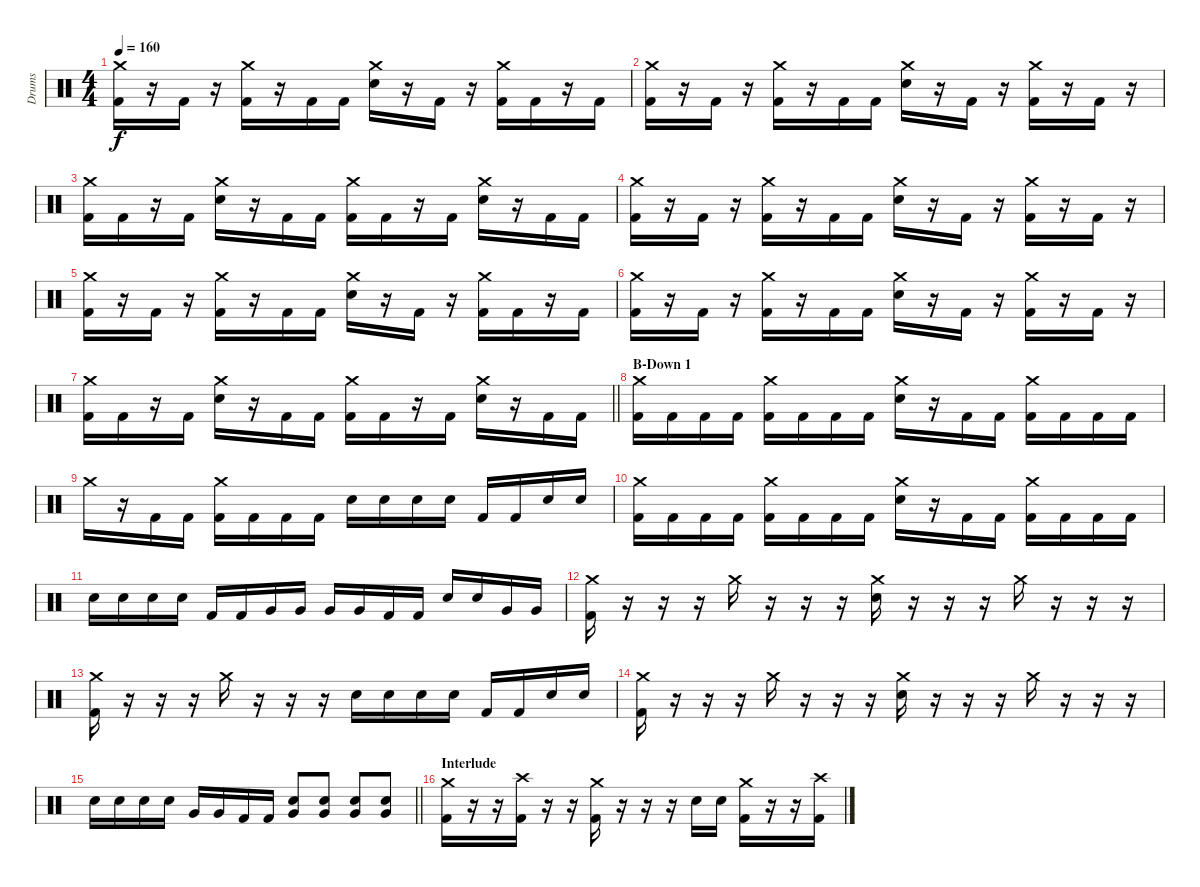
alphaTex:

\track ("Drums" "Drums") {instrument percussion}
\staff {score}
\articulation defaults
\ts (4 4)
\tempo 160
\clef neutral
\ks c
("Crash medium (hit)" "Kick (hit) 2").16{dy f} r.16 "Kick (hit) 2".16 r.16 ("Crash medium (hit)" "Kick (hit) 2").16 r.16 "Kick (hit) 2".16 "Kick (hit) 2".16 ("Crash medium (hit)" "Electric Snare (hit)").16 r.16 "Kick (hit) 2".16 r.16 ("Crash medium (hit)" "Kick (hit) 2").16 "Kick (hit) 2".16 r.16 "Kick (hit) 2".16 |
("Crash medium (hit)" "Kick (hit) 2").16 r.16 "Kick (hit) 2".16 r.16 ("Crash medium (hit)" "Kick (hit) 2").16 r.16 "Kick (hit) 2".16 "Kick (hit) 2".16 ("Crash medium (hit)" "Electric Snare (hit)").16 r.16 "Kick (hit) 2".16 r.16 ("Crash medium (hit)" "Kick (hit) 2").16 r.16 "Kick (hit) 2".16 r.16 |
("Crash medium (hit)" "Kick (hit) 2").16 "Kick (hit) 2".16 r.16 "Kick (hit) 2".16 ("Crash medium (hit)" "Electric Snare (hit)").16 r.16 "Kick (hit) 2".16 "Kick (hit) 2".16 ("Crash medium (hit)" "Kick (hit) 2").16 "Kick (hit) 2".16 r.16 "Kick (hit) 2".16 ("Crash medium (hit)" "Electric Snare (hit)").16 r.16 "Kick (hit) 2".16 "Kick (hit) 2".16 |
("Crash medium (hit)" "Kick (hit) 2").16 r.16 "Kick (hit) 2".16 r.16 ("Crash medium (hit)" "Kick (hit) 2").16 r.16 "Kick (hit) 2".16 "Kick (hit) 2".16 ("Crash medium (hit)" "Electric Snare (hit)").16 r.16 "Kick (hit) 2".16 r.16 ("Crash medium (hit)" "Kick (hit) 2").16 r.16 "Kick (hit) 2".16 r.16 |
("Crash medium (hit)" "Kick (hit) 2").16 r.16 "Kick (hit) 2".16 r.16 ("Crash medium (hit)" "Kick (hit) 2").16 r.16 "Kick (hit) 2".16 "Kick (hit) 2".16 ("Crash medium (hit)" "Electric Snare (hit)").16 r.16 "Kick (hit) 2".16 r.16 ("Crash medium (hit)" "Kick (hit) 2").16 "Kick (hit) 2".16 r.16 "Kick (hit) 2".16 |
("Crash medium (hit)" "Kick (hit) 2").16 r.16 "Kick (hit) 2".16 r.16 ("Crash medium (hit)" "Kick (hit) 2").16 r.16 "Kick (hit) 2".16 "Kick (hit) 2".16 ("Crash medium (hit)" "Electric Snare (hit)").16 r.16 "Kick (hit) 2".16 r.16 ("Crash medium (hit)" "Kick (hit) 2").16 r.16 "Kick (hit) 2".16 r.16 |
\barLineRight lightlight
("Crash medium (hit)" "Kick (hit) 2").16 "Kick (hit) 2".16 r.16 "Kick (hit) 2".16 ("Crash medium (hit)" "Electric Snare (hit)").16 r.16 "Kick (hit) 2".16 "Kick (hit) 2".16 ("Crash medium (hit)" "Kick (hit) 2").16 "Kick (hit) 2".16 r.16 "Kick (hit) 2".16 ("Crash medium (hit)" "Electric Snare (hit)").16 r.16 "Kick (hit) 2".16 "Kick (hit) 2".16 |
\section ("" "B-Down 1")
("Crash medium (hit)" "Kick (hit) 2").16 "Kick (hit) 2".16 "Kick (hit) 2".16 "Kick (hit) 2".16 ("Crash medium (hit)" "Kick (hit) 2").16 "Kick (hit) 2".16 "Kick (hit) 2".16 "Kick (hit) 2".16 ("Crash medium (hit)" "Electric Snare (hit)").16 r.16 "Kick (hit) 2".16 "Kick (hit) 2".16 ("Crash medium (hit)" "Kick (hit) 2").16 "Kick (hit) 2".16 "Kick (hit) 2".16 "Kick (hit) 2".16 |
"Crash medium (hit)".16 r.16 "Kick (hit) 2".16 "Kick (hit) 2".16 ("Crash medium (hit)" "Kick (hit) 2").16 "Kick (hit) 2".16 "Kick (hit) 2".16 "Kick (hit) 2".16 "Electric Snare (hit)".16 "Electric Snare (hit)".16 "Electric Snare (hit)".16 "Electric Snare (hit)".16 "Kick (hit) 2".16 "Kick (hit) 2".16 "Electric Snare (hit)".16 "Electric Snare (hit)".16 |
("Crash medium (hit)" "Kick (hit) 2").16 "Kick (hit) 2".16 "Kick (hit) 2".16 "Kick (hit) 2".16 ("Crash medium (hit)" "Kick (hit) 2").16 "Kick (hit) 2".16 "Kick (hit) 2".16 "Kick (hit) 2".16 ("Crash medium (hit)" "Electric Snare (hit)").16 r.16 "Kick (hit) 2".16 "Kick (hit) 2".16 ("Crash medium (hit)" "Kick (hit) 2").16 "Kick (hit) 2".16 "Kick (hit) 2".16 "Kick (hit) 2".16 |
"Electric Snare (hit)".16 "Electric Snare (hit)".16 "Electric Snare (hit)".16 "Electric Snare (hit)".16 "Kick (hit) 2".16 "Kick (hit) 2".16 "Very Low Tom (hit)".16 "Very Low Tom (hit)".16 "Very Low Tom (hit)".16 "Very Low Tom (hit)".16 "Kick (hit) 2".16 "Kick (hit) 2".16 "Electric Snare (hit)".16 "Electric Snare (hit)".16 "Very Low Tom (hit)".16 "Very Low Tom (hit)".16 |
("Crash medium (hit)" "Kick (hit) 2").16 r.16 r.16 r.16 "Crash medium (hit)".16 r.16 r.16 r.16 ("Crash medium (hit)" "Electric Snare (hit)").16 r.16 r.16 r.16 "Crash medium (hit)".16 r.16 r.16 r.16 |
("Crash medium (hit)" "Kick (hit) 2").16 r.16 r.16 r.16 "Crash medium (hit)".16 r.16 r.16 r.16 "Electric Snare (hit)".16 "Electric Snare (hit)".16 "Electric Snare (hit)".16 "Electric Snare (hit)".16 "Kick (hit) 2".16 "Kick (hit) 2".16 "Electric Snare (hit)".16 "Electric Snare (hit)".16 |
("Crash medium (hit)" "Kick (hit) 2").16 r.16 r.16 r.16 "Crash medium (hit)".16 r.16 r.16 r.16 ("Crash medium (hit)" "Electric Snare (hit)").16 r.16 r.16 r.16 "Crash medium (hit)".16 r.16 r.16 r.16 |
\barLineRight lightlight "Electric Snare (hit)".16 "Electric Snare (hit)".16 "Electric Snare (hit)".16 "Electric Snare (hit)".16 "Very Low Tom (hit)".16 "Very Low Tom (hit)".16 "Kick (hit) 2".16 "Kick (hit) 2".16
("Very Low Tom (hit)" "Electric Snare (hit)").8 ("Very Low Tom (hit)" "Electric Snare (hit)").8 ("Very Low Tom (hit)" "Electric Snare (hit)").8 ("Very Low Tom (hit)" "Electric Snare (hit)").8 |
\section ("" "Interlude")
("Crash medium (hit)" "Kick (hit) 2").16 r.16 r.16 ("Crash high (hit)" "Kick (hit) 2").16 r.16 r.16 ("Crash medium (hit)" "Kick (hit) 2").16 r.16 r.16 r.16 "Electric Snare (hit)".16 "Electric Snare (hit)".16 ("Crash medium (hit)" "Kick (hit) 2").16 r.16 r.16 ("Crash high (hit)" "Kick (hit) 2").16
